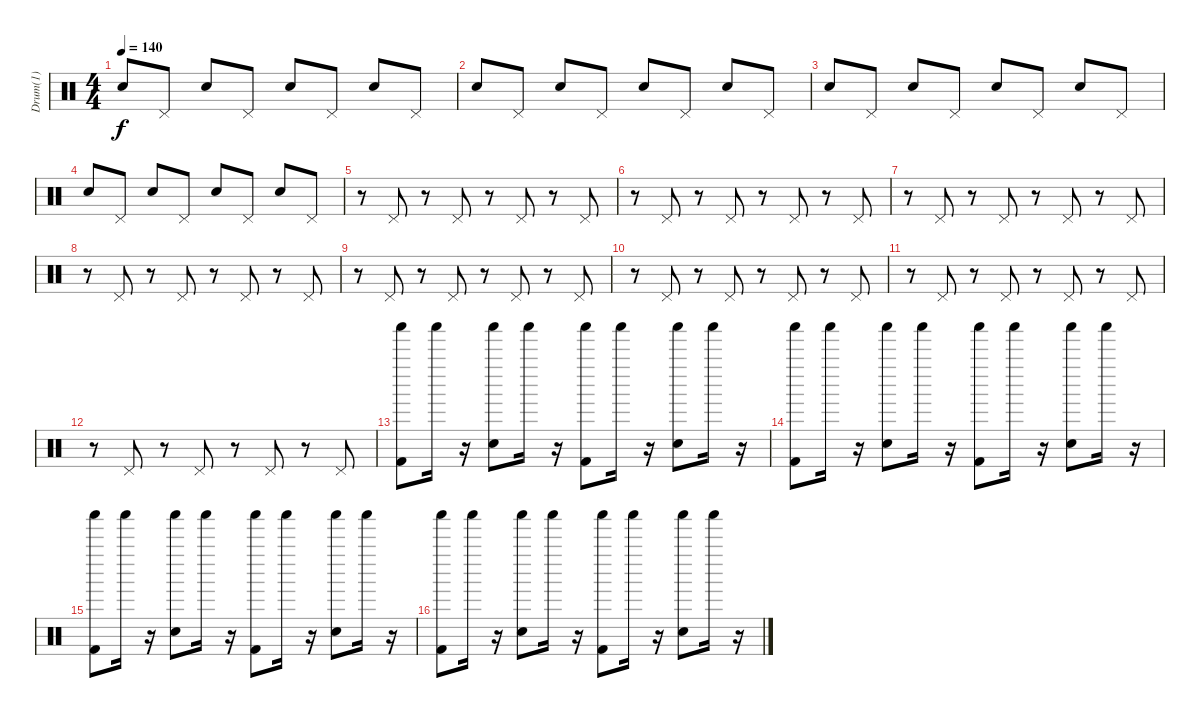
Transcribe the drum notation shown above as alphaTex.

\track ("Drum(1)" "Drum(1)") {instrument percussion}
\staff {score}
\articulation defaults
\ts (4 4)
\tempo 140
\clef neutral
\ks c "Snare (hit) 2".8{dy f} "Pedal Hi-Hat (hit)".8 "Snare (hit) 2".8 "Pedal Hi-Hat (hit)".8 "Snare (hit) 2".8 "Pedal Hi-Hat (hit)".8 "Snare (hit) 2".8 "Pedal Hi-Hat (hit)".8
|
"Snare (hit) 2".8 "Pedal Hi-Hat (hit)".8 "Snare (hit) 2".8 "Pedal Hi-Hat (hit)".8 "Snare (hit) 2".8 "Pedal Hi-Hat (hit)".8 "Snare (hit) 2".8 "Pedal Hi-Hat (hit)".8 |
"Snare (hit) 2".8 "Pedal Hi-Hat (hit)".8 "Snare (hit) 2".8 "Pedal Hi-Hat (hit)".8 "Snare (hit) 2".8 "Pedal Hi-Hat (hit)".8 "Snare (hit) 2".8 "Pedal Hi-Hat (hit)".8 |
"Snare (hit) 2".8 "Pedal Hi-Hat (hit)".8 "Snare (hit) 2".8 "Pedal Hi-Hat (hit)".8 "Snare (hit) 2".8 "Pedal Hi-Hat (hit)".8 "Snare (hit) 2".8 "Pedal Hi-Hat (hit)".8 |
r.8 "Pedal Hi-Hat (hit)".8 r.8 "Pedal Hi-Hat (hit)".8 r.8 "Pedal Hi-Hat (hit)".8 r.8 "Pedal Hi-Hat (hit)".8 |
r.8 "Pedal Hi-Hat (hit)".8 r.8 "Pedal Hi-Hat (hit)".8 r.8 "Pedal Hi-Hat (hit)".8 r.8 "Pedal Hi-Hat (hit)".8 |
r.8 "Pedal Hi-Hat (hit)".8 r.8 "Pedal Hi-Hat (hit)".8 r.8 "Pedal Hi-Hat (hit)".8 r.8 "Pedal Hi-Hat (hit)".8 |
r.8 "Pedal Hi-Hat (hit)".8 r.8 "Pedal Hi-Hat (hit)".8 r.8 "Pedal Hi-Hat (hit)".8 r.8 "Pedal Hi-Hat (hit)".8 |
r.8 "Pedal Hi-Hat (hit)".8 r.8 "Pedal Hi-Hat (hit)".8 r.8 "Pedal Hi-Hat (hit)".8 r.8 "Pedal Hi-Hat (hit)".8 |
r.8 "Pedal Hi-Hat (hit)".8 r.8 "Pedal Hi-Hat (hit)".8 r.8 "Pedal Hi-Hat (hit)".8 r.8 "Pedal Hi-Hat (hit)".8 |
r.8 "Pedal Hi-Hat (hit)".8 r.8 "Pedal Hi-Hat (hit)".8 r.8 "Pedal Hi-Hat (hit)".8 r.8 "Pedal Hi-Hat (hit)".8 |
r.8 "Pedal Hi-Hat (hit)".8 r.8 "Pedal Hi-Hat (hit)".8 r.8 "Pedal Hi-Hat (hit)".8 r.8 "Pedal Hi-Hat (hit)".8 |
("Kick (hit) 2" "Shaker (hit)").8 "Shaker (hit)".16 r.16 ("Electric Snare (hit)" "Shaker (hit)").8 "Shaker (hit)".16 r.16 ("Kick (hit) 2" "Shaker (hit)").8 "Shaker (hit)".16 r.16 ("Electric Snare (hit)" "Shaker (hit)").8 "Shaker (hit)".16 r.16 |
("Kick (hit) 2" "Shaker (hit)").8 "Shaker (hit)".16 r.16 ("Electric Snare (hit)" "Shaker (hit)").8 "Shaker (hit)".16 r.16 ("Kick (hit) 2" "Shaker (hit)").8 "Shaker (hit)".16 r.16 ("Electric Snare (hit)" "Shaker (hit)").8 "Shaker (hit)".16 r.16 |
("Kick (hit) 2" "Shaker (hit)").8 "Shaker (hit)".16 r.16 ("Electric Snare (hit)" "Shaker (hit)").8 "Shaker (hit)".16 r.16 ("Kick (hit) 2" "Shaker (hit)").8 "Shaker (hit)".16 r.16 ("Electric Snare (hit)" "Shaker (hit)").8 "Shaker (hit)".16 r.16 |
("Kick (hit) 2" "Shaker (hit)").8 "Shaker (hit)".16 r.16 ("Electric Snare (hit)" "Shaker (hit)").8 "Shaker (hit)".16 r.16 ("Kick (hit) 2" "Shaker (hit)").8 "Shaker (hit)".16 r.16 ("Electric Snare (hit)" "Shaker (hit)").8 "Shaker (hit)".16 r.16
